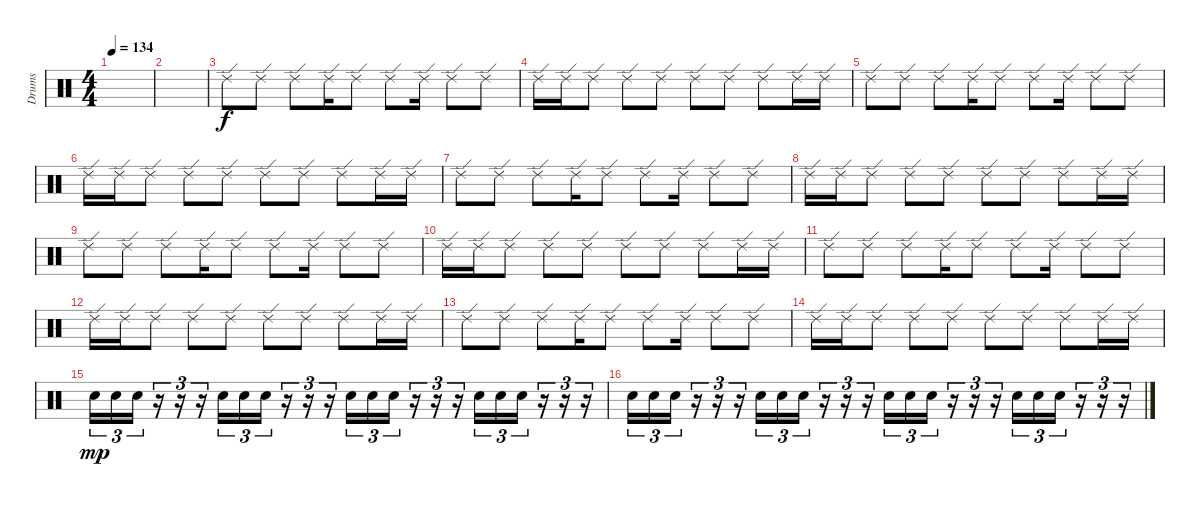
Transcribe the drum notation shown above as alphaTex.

\track ("Drums" "Drums") {instrument percussion}
\staff {score}
\articulation defaults
\ts (4 4)
\tempo 134
\clef neutral
\ks c
|
|
"Ride (edge) 2".8 "Ride (edge) 2".8 "Ride (edge) 2".8 "Ride (edge) 2".16 "Ride (edge) 2".8 "Ride (edge) 2".8 "Ride (edge) 2".16 "Ride (edge) 2".8 "Ride (edge) 2".8 |
"Ride (edge) 2".16 "Ride (edge) 2".16 "Ride (edge) 2".8 "Ride (edge) 2".8 "Ride (edge) 2".8 "Ride (edge) 2".8 "Ride (edge) 2".8 "Ride (edge) 2".8 "Ride (edge) 2".16 "Ride (edge) 2".16 |
"Ride (edge) 2".8 "Ride (edge) 2".8 "Ride (edge) 2".8 "Ride (edge) 2".16 "Ride (edge) 2".8 "Ride (edge) 2".8 "Ride (edge) 2".16 "Ride (edge) 2".8 "Ride (edge) 2".8 |
"Ride (edge) 2".16 "Ride (edge) 2".16 "Ride (edge) 2".8 "Ride (edge) 2".8 "Ride (edge) 2".8 "Ride (edge) 2".8 "Ride (edge) 2".8 "Ride (edge) 2".8 "Ride (edge) 2".16 "Ride (edge) 2".16 |
"Ride (edge) 2".8 "Ride (edge) 2".8 "Ride (edge) 2".8 "Ride (edge) 2".16 "Ride (edge) 2".8 "Ride (edge) 2".8 "Ride (edge) 2".16 "Ride (edge) 2".8 "Ride (edge) 2".8 |
"Ride (edge) 2".16 "Ride (edge) 2".16 "Ride (edge) 2".8 "Ride (edge) 2".8 "Ride (edge) 2".8 "Ride (edge) 2".8 "Ride (edge) 2".8 "Ride (edge) 2".8 "Ride (edge) 2".16 "Ride (edge) 2".16 |
"Ride (edge) 2".8 "Ride (edge) 2".8 "Ride (edge) 2".8 "Ride (edge) 2".16 "Ride (edge) 2".8 "Ride (edge) 2".8 "Ride (edge) 2".16 "Ride (edge) 2".8 "Ride (edge) 2".8 |
"Ride (edge) 2".16 "Ride (edge) 2".16 "Ride (edge) 2".8 "Ride (edge) 2".8 "Ride (edge) 2".8 "Ride (edge) 2".8 "Ride (edge) 2".8 "Ride (edge) 2".8 "Ride (edge) 2".16 "Ride (edge) 2".16 |
"Ride (edge) 2".8 "Ride (edge) 2".8 "Ride (edge) 2".8 "Ride (edge) 2".16 "Ride (edge) 2".8 "Ride (edge) 2".8 "Ride (edge) 2".16 "Ride (edge) 2".8 "Ride (edge) 2".8 |
"Ride (edge) 2".16 "Ride (edge) 2".16 "Ride (edge) 2".8 "Ride (edge) 2".8 "Ride (edge) 2".8 "Ride (edge) 2".8 "Ride (edge) 2".8 "Ride (edge) 2".8 "Ride (edge) 2".16 "Ride (edge) 2".16 |
"Ride (edge) 2".8 "Ride (edge) 2".8 "Ride (edge) 2".8 "Ride (edge) 2".16 "Ride (edge) 2".8 "Ride (edge) 2".8 "Ride (edge) 2".16 "Ride (edge) 2".8 "Ride (edge) 2".8 |
"Ride (edge) 2".16 "Ride (edge) 2".16 "Ride (edge) 2".8 "Ride (edge) 2".8 "Ride (edge) 2".8 "Ride (edge) 2".8 "Ride (edge) 2".8 "Ride (edge) 2".8 "Ride (edge) 2".16 "Ride (edge) 2".16 |
"Snare (hit) 2".16{tu (3 2) dy mp} "Snare (hit) 2".16{tu (3 2)} "Snare (hit) 2".16{tu (3 2)} r.16{tu (3 2)} r.16{tu (3 2)} r.16{tu (3 2)} "Electric Snare (hit)".16{tu (3 2)} "Electric Snare (hit)".16{tu (3 2)} "Electric Snare (hit)".16{tu (3 2)} r.16{tu (3 2)} r.16{tu (3 2)} r.16{tu (3 2)} "Snare (hit) 2".16{tu (3 2)} "Snare (hit) 2".16{tu (3 2)} "Snare (hit) 2".16{tu (3 2)} r.16{tu (3 2)} r.16{tu (3 2)} r.16{tu (3 2)} "Electric Snare (hit)".16{tu (3 2)} "Electric Snare (hit)".16{tu (3 2)} "Electric Snare (hit)".16{tu (3 2)} r.16{tu (3 2)} r.16{tu (3 2)} r.16{tu (3 2)} |
"Snare (hit) 2".16{tu (3 2)} "Snare (hit) 2".16{tu (3 2)} "Snare (hit) 2".16{tu (3 2)} r.16{tu (3 2)} r.16{tu (3 2)} r.16{tu (3 2)} "Electric Snare (hit)".16{tu (3 2)} "Electric Snare (hit)".16{tu (3 2)} "Electric Snare (hit)".16{tu (3 2)} r.16{tu (3 2)} r.16{tu (3 2)} r.16{tu (3 2)} "Snare (hit) 2".16{tu (3 2)} "Snare (hit) 2".16{tu (3 2)} "Snare (hit) 2".16{tu (3 2)} r.16{tu (3 2)} r.16{tu (3 2)} r.16{tu (3 2)} "Electric Snare (hit)".16{tu (3 2)} "Electric Snare (hit)".16{tu (3 2)} "Electric Snare (hit)".16{tu (3 2)} r.16{tu (3 2)} r.16{tu (3 2)} r.16{tu (3 2)}
